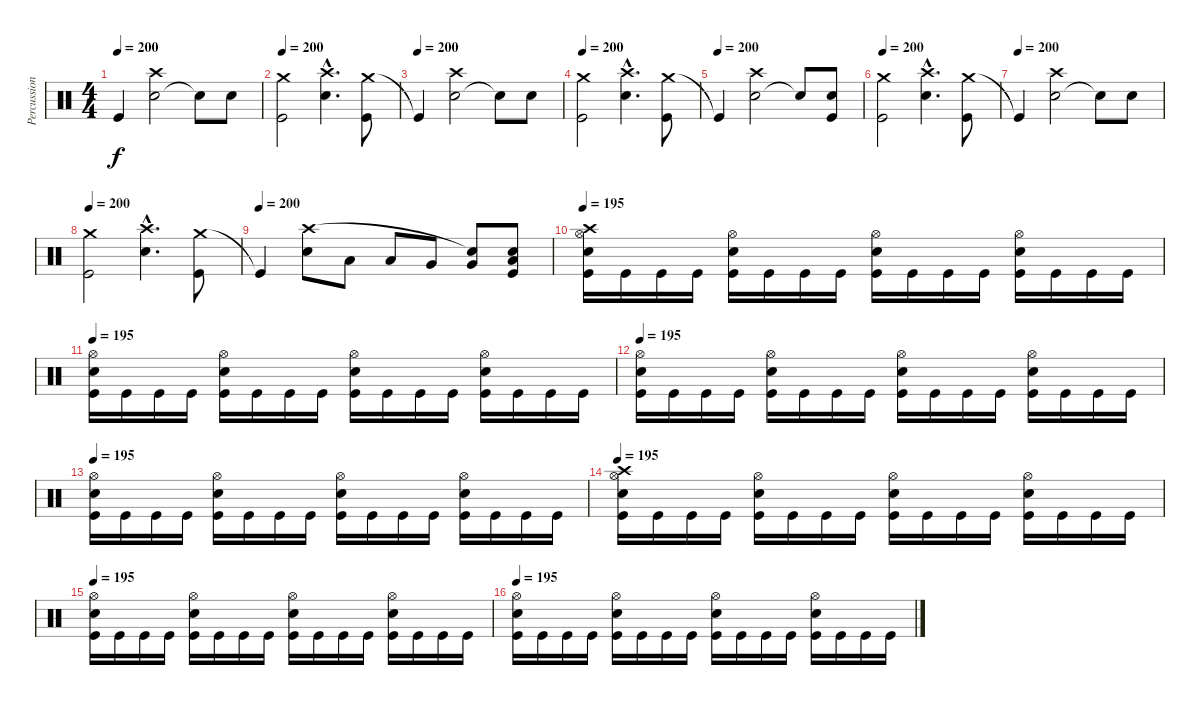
\track ("Percussion" "Percussion") {instrument percussion}
\staff {score}
\articulation defaults
\ts (4 4)
\tempo 200
\clef neutral
\ks c "Kick (hit)"{t}.4{dy f}
("Electric Snare (hit)" "Crash high (hit)").2 "Snare (hit)"{t}.8 "Electric Snare (hit)".8 |
\tempo 200
("Crash medium (hit)" "Kick (hit)").2 ("Crash high (hit)"{hac} "Electric Snare (hit)"{hac}).4{d} ("Crash medium (hit)" "Kick (hit)").8 |
\tempo (200)
"Kick (hit)"{t}.4 ("Electric Snare (hit)" "Crash high (hit)").2 "Snare (hit)"{t}.8 "Electric Snare (hit)".8 |
\tempo 200
("Crash medium (hit)" "Kick (hit)").2 ("Crash high (hit)"{hac} "Electric Snare (hit)"{hac}).4{d} ("Crash medium (hit)" "Kick (hit)").8 |
\tempo (200)
"Kick (hit)"{t}.4 ("Electric Snare (hit)" "Crash high (hit)").2 "Snare (hit)"{t}.8 ("Electric Snare (hit)" "Kick (hit)").8 |
\tempo 200
("Crash medium (hit)" "Kick (hit)").2 ("Crash high (hit)"{hac} "Electric Snare (hit)"{hac}).4{d} ("Crash medium (hit)" "Kick (hit)").8 |
\tempo (200)
"Kick (hit)"{t}.4 ("Electric Snare (hit)" "Crash high (hit)").2 "Snare (hit)"{t}.8 "Electric Snare (hit)".8 |
\tempo 200
("Crash medium (hit)" "Kick (hit)").2 ("Crash high (hit)"{hac} "Electric Snare (hit)"{hac}).4{d} ("Crash medium (hit)" "Kick (hit)").8 |
\tempo (200)
"Kick (hit)"{t}.4 ("Electric Snare (hit)" "Crash high (hit)").8 "Low Tom (hit)".8 "Low Tom (hit)".8 "Very Low Tom (hit)".8 ("Very Low Tom (hit)" "Snare (hit)"{t}).8 ("Low Floor Tom (hit)" "Electric Snare (hit)" "Kick (hit)").8 |
\tempo 195
("Crash high (hit)" "Hi-Hat (open)" "Electric Snare (hit)" "Kick (hit)").16 "Kick (hit)".16 "Kick (hit)".16 "Kick (hit)".16 ("Hi-Hat (open)" "Electric Snare (hit)" "Kick (hit)").16 "Kick (hit)".16 "Kick (hit)".16 "Kick (hit)".16 ("Hi-Hat (open)" "Electric Snare (hit)" "Kick (hit)").16 "Kick (hit)".16 "Kick (hit)".16 "Kick (hit)".16 ("Hi-Hat (open)" "Electric Snare (hit)" "Kick (hit)").16 "Kick (hit)".16 "Kick (hit)".16 "Kick (hit)".16 |
\tempo 195
("Hi-Hat (open)" "Electric Snare (hit)" "Kick (hit)").16 "Kick (hit)".16 "Kick (hit)".16 "Kick (hit)".16 ("Hi-Hat (open)" "Electric Snare (hit)" "Kick (hit)").16 "Kick (hit)".16 "Kick (hit)".16 "Kick (hit)".16 ("Hi-Hat (open)" "Electric Snare (hit)" "Kick (hit)").16 "Kick (hit)".16 "Kick (hit)".16 "Kick (hit)".16 ("Hi-Hat (open)" "Electric Snare (hit)" "Kick (hit)").16 "Kick (hit)".16 "Kick (hit)".16 "Kick (hit)".16 |
\tempo 195
("Hi-Hat (open)" "Electric Snare (hit)" "Kick (hit)").16 "Kick (hit)".16 "Kick (hit)".16 "Kick (hit)".16 ("Hi-Hat (open)" "Electric Snare (hit)" "Kick (hit)").16 "Kick (hit)".16 "Kick (hit)".16 "Kick (hit)".16 ("Hi-Hat (open)" "Electric Snare (hit)" "Kick (hit)").16 "Kick (hit)".16 "Kick (hit)".16 "Kick (hit)".16 ("Hi-Hat (open)" "Electric Snare (hit)" "Kick (hit)").16 "Kick (hit)".16 "Kick (hit)".16 "Kick (hit)".16 |
\tempo 195
("Hi-Hat (open)" "Electric Snare (hit)" "Kick (hit)").16 "Kick (hit)".16 "Kick (hit)".16 "Kick (hit)".16 ("Hi-Hat (open)" "Electric Snare (hit)" "Kick (hit)").16 "Kick (hit)".16 "Kick (hit)".16 "Kick (hit)".16 ("Hi-Hat (open)" "Electric Snare (hit)" "Kick (hit)").16 "Kick (hit)".16 "Kick (hit)".16 "Kick (hit)".16 ("Hi-Hat (open)" "Electric Snare (hit)" "Kick (hit)").16 "Kick (hit)".16 "Kick (hit)".16 "Kick (hit)".16 |
\tempo 195
("Crash high (hit)" "Hi-Hat (open)" "Electric Snare (hit)" "Kick (hit)").16 "Kick (hit)".16 "Kick (hit)".16 "Kick (hit)".16 ("Hi-Hat (open)" "Electric Snare (hit)" "Kick (hit)").16 "Kick (hit)".16 "Kick (hit)".16 "Kick (hit)".16 ("Hi-Hat (open)" "Electric Snare (hit)" "Kick (hit)").16 "Kick (hit)".16 "Kick (hit)".16 "Kick (hit)".16 ("Hi-Hat (open)" "Electric Snare (hit)" "Kick (hit)").16 "Kick (hit)".16 "Kick (hit)".16 "Kick (hit)".16 |
\tempo 195
("Hi-Hat (open)" "Electric Snare (hit)" "Kick (hit)").16 "Kick (hit)".16 "Kick (hit)".16 "Kick (hit)".16 ("Hi-Hat (open)" "Electric Snare (hit)" "Kick (hit)").16 "Kick (hit)".16 "Kick (hit)".16 "Kick (hit)".16 ("Hi-Hat (open)" "Electric Snare (hit)" "Kick (hit)").16 "Kick (hit)".16 "Kick (hit)".16 "Kick (hit)".16 ("Hi-Hat (open)" "Electric Snare (hit)" "Kick (hit)").16 "Kick (hit)".16 "Kick (hit)".16 "Kick (hit)".16 |
\tempo 195
("Hi-Hat (open)" "Electric Snare (hit)" "Kick (hit)").16 "Kick (hit)".16 "Kick (hit)".16 "Kick (hit)".16 ("Hi-Hat (open)" "Electric Snare (hit)" "Kick (hit)").16 "Kick (hit)".16 "Kick (hit)".16 "Kick (hit)".16 ("Hi-Hat (open)" "Electric Snare (hit)" "Kick (hit)").16 "Kick (hit)".16 "Kick (hit)".16 "Kick (hit)".16 ("Hi-Hat (open)" "Electric Snare (hit)" "Kick (hit)").16 "Kick (hit)".16 "Kick (hit)".16 "Kick (hit)".16
